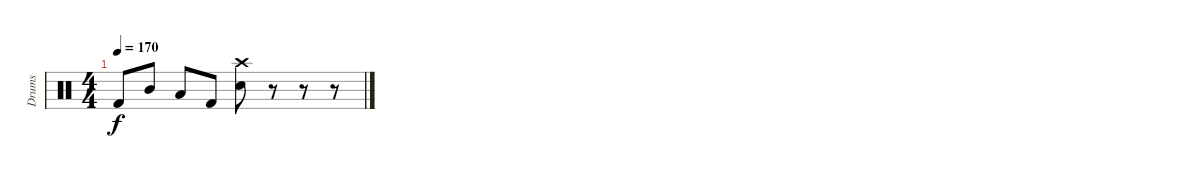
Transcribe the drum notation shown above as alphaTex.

\track ("Drums" "Drums") {instrument percussion}
\staff {score}
\articulation defaults
\ts (4 4)
\tempo 170
\clef neutral
\ks c "Kick (hit) 2".8{dy f} "Mid Tom (hit)".8 "Low Tom (hit)".8 "Kick (hit) 2".8
("Crash high (hit)" "Snare (hit) 2").8 r.8 r.8 r.8
